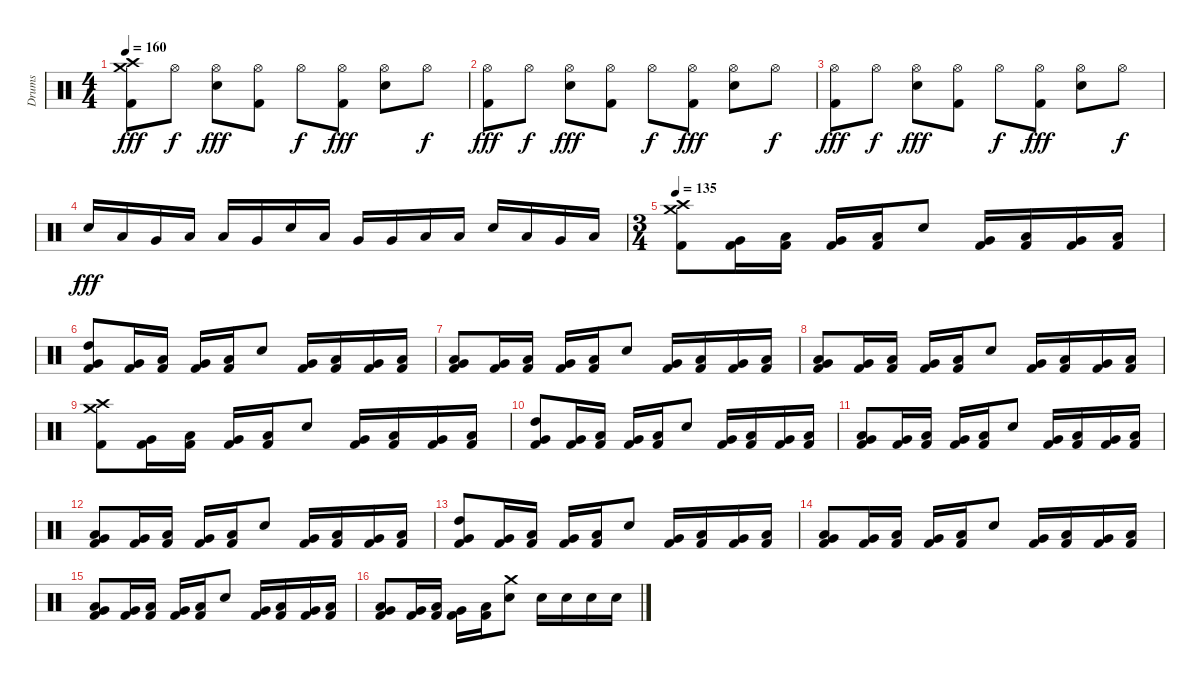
\track ("Drums" "Drums") {instrument percussion}
\staff {score}
\articulation defaults
\ts (4 4)
\tempo 160
\clef neutral
\ks c
("Kick (hit) 2" "Crash medium (hit)" "Crash high (hit)").8{dy fff} "Hi-Hat (open)".8{dy f} ("Electric Snare (hit)" "Hi-Hat (open)").8{dy fff} ("Kick (hit) 2" "Hi-Hat (open)").8 "Hi-Hat (open)".8{dy f} ("Kick (hit) 2" "Hi-Hat (open)").8{dy fff} ("Electric Snare (hit)" "Hi-Hat (open)").8 "Hi-Hat (open)".8{dy f} |
("Kick (hit) 2" "Hi-Hat (open)").8{dy fff} "Hi-Hat (open)".8{dy f} ("Electric Snare (hit)" "Hi-Hat (open)").8{dy fff} ("Kick (hit) 2" "Hi-Hat (open)").8 "Hi-Hat (open)".8{dy f} ("Kick (hit) 2" "Hi-Hat (open)").8{dy fff} ("Electric Snare (hit)" "Hi-Hat (open)").8 "Hi-Hat (open)".8{dy f} |
("Kick (hit) 2" "Hi-Hat (open)").8{dy fff} "Hi-Hat (open)".8{dy f} ("Electric Snare (hit)" "Hi-Hat (open)").8{dy fff} ("Kick (hit) 2" "Hi-Hat (open)").8 "Hi-Hat (open)".8{dy f} ("Kick (hit) 2" "Hi-Hat (open)").8{dy fff} ("Electric Snare (hit)" "Hi-Hat (open)").8 "Hi-Hat (open)".8{dy f} |
"Electric Snare (hit)".16{dy fff} "Low Tom (hit)".16 "Very Low Tom (hit)".16 "Low Tom (hit)".16 "Low Tom (hit)".16 "Very Low Tom (hit)".16 "Electric Snare (hit)".16 "Low Tom (hit)".16 "Very Low Tom (hit)".16 "Very Low Tom (hit)".16 "Low Tom (hit)".16 "Low Tom (hit)".16 "Electric Snare (hit)".16 "Low Tom (hit)".16 "Very Low Tom (hit)".16 "Low Tom (hit)".16 |
\ts (3 4)
\tempo 135
("Kick (hit) 2" "Crash medium (hit)" "Crash high (hit)").8 ("Kick (hit) 2" "Very Low Tom (hit)").16 ("Kick (hit) 2" "Low Tom (hit)").16 ("Kick (hit) 2" "Very Low Tom (hit)").16 ("Kick (hit) 2" "Low Tom (hit)").16 "Electric Snare (hit)".8 ("Kick (hit) 2" "Very Low Tom (hit)").16 ("Kick (hit) 2" "Low Tom (hit)").16 ("Kick (hit) 2" "Very Low Tom (hit)").16 ("Kick (hit) 2" "Low Tom (hit)").16 |
("Kick (hit) 2" "Very Low Tom (hit)" "High Tom (hit)").8 ("Kick (hit) 2" "Very Low Tom (hit)").16 ("Kick (hit) 2" "Low Tom (hit)").16 ("Kick (hit) 2" "Very Low Tom (hit)").16 ("Kick (hit) 2" "Low Tom (hit)").16 "Electric Snare (hit)".8 ("Kick (hit) 2" "Very Low Tom (hit)").16 ("Kick (hit) 2" "Low Tom (hit)").16 ("Kick (hit) 2" "Very Low Tom (hit)").16 ("Kick (hit) 2" "Low Tom (hit)").16 |
("Kick (hit) 2" "Low Tom (hit)" "Very Low Tom (hit)").8 ("Kick (hit) 2" "Very Low Tom (hit)").16 ("Kick (hit) 2" "Low Tom (hit)").16 ("Kick (hit) 2" "Very Low Tom (hit)").16 ("Kick (hit) 2" "Low Tom (hit)").16 "Electric Snare (hit)".8 ("Kick (hit) 2" "Very Low Tom (hit)").16 ("Kick (hit) 2" "Low Tom (hit)").16 ("Kick (hit) 2" "Very Low Tom (hit)").16 ("Kick (hit) 2" "Low Tom (hit)").16 |
("Kick (hit) 2" "Low Tom (hit)" "Very Low Tom (hit)").8 ("Kick (hit) 2" "Very Low Tom (hit)").16 ("Kick (hit) 2" "Low Tom (hit)").16 ("Kick (hit) 2" "Very Low Tom (hit)").16 ("Kick (hit) 2" "Low Tom (hit)").16 "Electric Snare (hit)".8 ("Kick (hit) 2" "Very Low Tom (hit)").16 ("Kick (hit) 2" "Low Tom (hit)").16 ("Kick (hit) 2" "Very Low Tom (hit)").16 ("Kick (hit) 2" "Low Tom (hit)").16 |
("Kick (hit) 2" "Crash medium (hit)" "Crash high (hit)").8 ("Kick (hit) 2" "Very Low Tom (hit)").16 ("Kick (hit) 2" "Low Tom (hit)").16 ("Kick (hit) 2" "Very Low Tom (hit)").16 ("Kick (hit) 2" "Low Tom (hit)").16 "Electric Snare (hit)".8 ("Kick (hit) 2" "Very Low Tom (hit)").16 ("Kick (hit) 2" "Low Tom (hit)").16 ("Kick (hit) 2" "Very Low Tom (hit)").16 ("Kick (hit) 2" "Low Tom (hit)").16 |
("Kick (hit) 2" "Very Low Tom (hit)" "High Tom (hit)").8 ("Kick (hit) 2" "Very Low Tom (hit)").16 ("Kick (hit) 2" "Low Tom (hit)").16 ("Kick (hit) 2" "Very Low Tom (hit)").16 ("Kick (hit) 2" "Low Tom (hit)").16 "Electric Snare (hit)".8 ("Kick (hit) 2" "Very Low Tom (hit)").16 ("Kick (hit) 2" "Low Tom (hit)").16 ("Kick (hit) 2" "Very Low Tom (hit)").16 ("Kick (hit) 2" "Low Tom (hit)").16 |
("Kick (hit) 2" "Low Tom (hit)" "Very Low Tom (hit)").8 ("Kick (hit) 2" "Very Low Tom (hit)").16 ("Kick (hit) 2" "Low Tom (hit)").16 ("Kick (hit) 2" "Very Low Tom (hit)").16 ("Kick (hit) 2" "Low Tom (hit)").16 "Electric Snare (hit)".8 ("Kick (hit) 2" "Very Low Tom (hit)").16 ("Kick (hit) 2" "Low Tom (hit)").16 ("Kick (hit) 2" "Very Low Tom (hit)").16 ("Kick (hit) 2" "Low Tom (hit)").16 |
("Kick (hit) 2" "Low Tom (hit)" "Very Low Tom (hit)").8 ("Kick (hit) 2" "Very Low Tom (hit)").16 ("Kick (hit) 2" "Low Tom (hit)").16 ("Kick (hit) 2" "Very Low Tom (hit)").16 ("Kick (hit) 2" "Low Tom (hit)").16 "Electric Snare (hit)".8 ("Kick (hit) 2" "Very Low Tom (hit)").16 ("Kick (hit) 2" "Low Tom (hit)").16 ("Kick (hit) 2" "Very Low Tom (hit)").16 ("Kick (hit) 2" "Low Tom (hit)").16 |
("Kick (hit) 2" "Very Low Tom (hit)" "High Tom (hit)").8 ("Kick (hit) 2" "Very Low Tom (hit)").16 ("Kick (hit) 2" "Low Tom (hit)").16 ("Kick (hit) 2" "Very Low Tom (hit)").16 ("Kick (hit) 2" "Low Tom (hit)").16 "Electric Snare (hit)".8 ("Kick (hit) 2" "Very Low Tom (hit)").16 ("Kick (hit) 2" "Low Tom (hit)").16 ("Kick (hit) 2" "Very Low Tom (hit)").16 ("Kick (hit) 2" "Low Tom (hit)").16 |
("Kick (hit) 2" "Low Tom (hit)" "Very Low Tom (hit)").8 ("Kick (hit) 2" "Very Low Tom (hit)").16 ("Kick (hit) 2" "Low Tom (hit)").16 ("Kick (hit) 2" "Very Low Tom (hit)").16 ("Kick (hit) 2" "Low Tom (hit)").16 "Electric Snare (hit)".8 ("Kick (hit) 2" "Very Low Tom (hit)").16 ("Kick (hit) 2" "Low Tom (hit)").16 ("Kick (hit) 2" "Very Low Tom (hit)").16 ("Kick (hit) 2" "Low Tom (hit)").16 |
("Kick (hit) 2" "Low Tom (hit)" "Very Low Tom (hit)").8 ("Kick (hit) 2" "Very Low Tom (hit)").16 ("Kick (hit) 2" "Low Tom (hit)").16 ("Kick (hit) 2" "Very Low Tom (hit)").16 ("Kick (hit) 2" "Low Tom (hit)").16 "Electric Snare (hit)".8 ("Kick (hit) 2" "Very Low Tom (hit)").16 ("Kick (hit) 2" "Low Tom (hit)").16 ("Kick (hit) 2" "Very Low Tom (hit)").16 ("Kick (hit) 2" "Low Tom (hit)").16 |
("Kick (hit) 2" "Low Tom (hit)" "Very Low Tom (hit)").8 ("Kick (hit) 2" "Very Low Tom (hit)").16 ("Kick (hit) 2" "Low Tom (hit)").16 ("Kick (hit) 2" "Very Low Tom (hit)").16 ("Kick (hit) 2" "Low Tom (hit)").16 ("Electric Snare (hit)" "Crash medium (hit)").8 "Electric Snare (hit)".16 "Electric Snare (hit)".16 "Electric Snare (hit)".16 "Electric Snare (hit)".16
